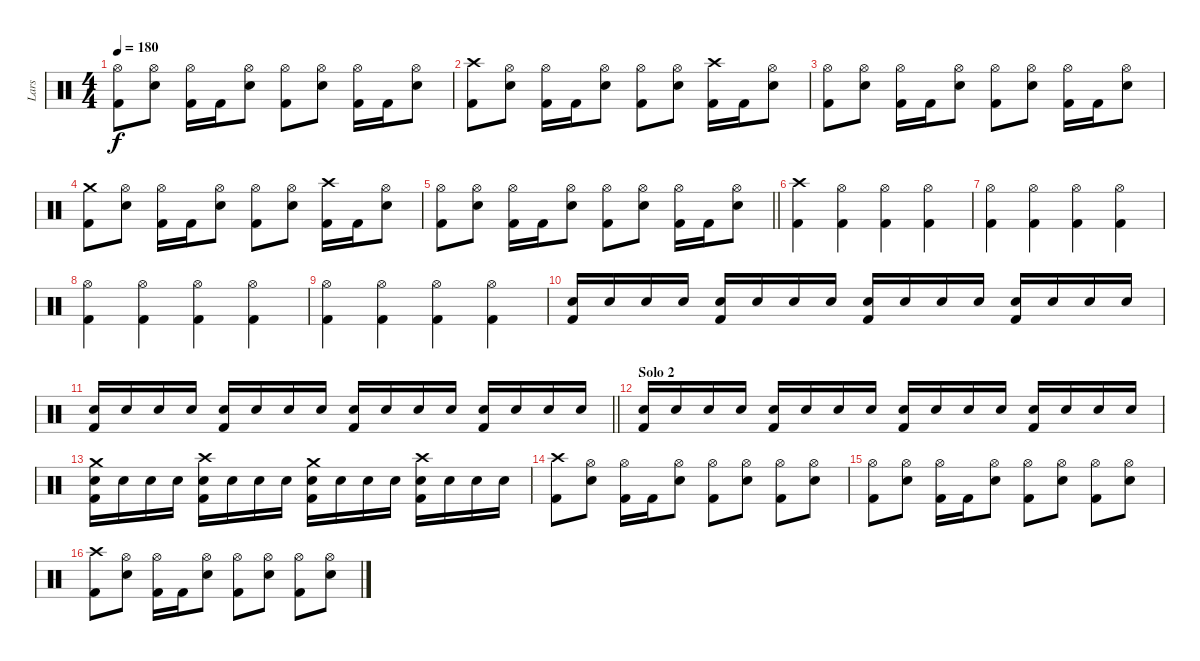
\track ("Lars" "Lars") {instrument percussion}
\staff {score}
\articulation defaults
\ts (4 4)
\tempo 180
\clef neutral
\ks c
("Hi-Hat (open)" "Kick (hit) 2").8{dy f} ("Hi-Hat (open)" "Electric Snare (hit)").8 ("Hi-Hat (open)" "Kick (hit) 2").16 "Kick (hit) 2".16 ("Hi-Hat (open)" "Electric Snare (hit)").8 ("Hi-Hat (open)" "Kick (hit) 2").8 ("Hi-Hat (open)" "Electric Snare (hit)").8 ("Hi-Hat (open)" "Kick (hit) 2").16 "Kick (hit) 2".16 ("Hi-Hat (open)" "Electric Snare (hit)").8 |
("Crash high (hit)" "Kick (hit) 2").8 ("Hi-Hat (open)" "Electric Snare (hit)").8 ("Hi-Hat (open)" "Kick (hit) 2").16 "Kick (hit) 2".16 ("Hi-Hat (open)" "Electric Snare (hit)").8 ("Hi-Hat (open)" "Kick (hit) 2").8 ("Hi-Hat (open)" "Electric Snare (hit)").8 ("Crash high (hit)" "Kick (hit) 2").16 "Kick (hit) 2".16 ("Hi-Hat (open)" "Electric Snare (hit)").8 |
("Hi-Hat (open)" "Kick (hit) 2").8 ("Hi-Hat (open)" "Electric Snare (hit)").8 ("Hi-Hat (open)" "Kick (hit) 2").16 "Kick (hit) 2".16 ("Hi-Hat (open)" "Electric Snare (hit)").8 ("Hi-Hat (open)" "Kick (hit) 2").8 ("Hi-Hat (open)" "Electric Snare (hit)").8 ("Hi-Hat (open)" "Kick (hit) 2").16 "Kick (hit) 2".16 ("Hi-Hat (open)" "Electric Snare (hit)").8 |
("Crash medium (hit)" "Kick (hit) 2").8 ("Hi-Hat (open)" "Electric Snare (hit)").8 ("Hi-Hat (open)" "Kick (hit) 2").16 "Kick (hit) 2".16 ("Hi-Hat (open)" "Electric Snare (hit)").8 ("Hi-Hat (open)" "Kick (hit) 2").8 ("Hi-Hat (open)" "Electric Snare (hit)").8 ("Crash high (hit)" "Kick (hit) 2").16 "Kick (hit) 2".16 ("Hi-Hat (open)" "Electric Snare (hit)").8 |
\barLineRight lightlight
("Hi-Hat (open)" "Kick (hit) 2").8 ("Hi-Hat (open)" "Electric Snare (hit)").8 ("Hi-Hat (open)" "Kick (hit) 2").16 "Kick (hit) 2".16 ("Hi-Hat (open)" "Electric Snare (hit)").8 ("Hi-Hat (open)" "Kick (hit) 2").8 ("Hi-Hat (open)" "Electric Snare (hit)").8 ("Hi-Hat (open)" "Kick (hit) 2").16 "Kick (hit) 2".16 ("Hi-Hat (open)" "Electric Snare (hit)").8 |
\section ("" "")
("Crash high (hit)" "Kick (hit) 2").4 ("Hi-Hat (open)" "Kick (hit) 2").4 ("Hi-Hat (open)" "Kick (hit) 2").4 ("Hi-Hat (open)" "Kick (hit) 2").4 |
("Hi-Hat (open)" "Kick (hit) 2").4 ("Hi-Hat (open)" "Kick (hit) 2").4 ("Hi-Hat (open)" "Kick (hit) 2").4 ("Hi-Hat (open)" "Kick (hit) 2").4 |
("Hi-Hat (open)" "Kick (hit) 2").4 ("Hi-Hat (open)" "Kick (hit) 2").4 ("Hi-Hat (open)" "Kick (hit) 2").4 ("Hi-Hat (open)" "Kick (hit) 2").4 |
("Hi-Hat (open)" "Kick (hit) 2").4 ("Hi-Hat (open)" "Kick (hit) 2").4 ("Hi-Hat (open)" "Kick (hit) 2").4 ("Hi-Hat (open)" "Kick (hit) 2").4 |
("Electric Snare (hit)" "Kick (hit) 2").16 "Electric Snare (hit)".16 "Electric Snare (hit)".16 "Electric Snare (hit)".16 ("Electric Snare (hit)" "Kick (hit) 2").16 "Electric Snare (hit)".16 "Electric Snare (hit)".16 "Electric Snare (hit)".16 ("Electric Snare (hit)" "Kick (hit) 2").16 "Electric Snare (hit)".16 "Electric Snare (hit)".16 "Electric Snare (hit)".16 ("Electric Snare (hit)" "Kick (hit) 2").16 "Electric Snare (hit)".16 "Electric Snare (hit)".16 "Electric Snare (hit)".16 |
\barLineRight lightlight
("Electric Snare (hit)" "Kick (hit) 2").16 "Electric Snare (hit)".16 "Electric Snare (hit)".16 "Electric Snare (hit)".16 ("Electric Snare (hit)" "Kick (hit) 2").16 "Electric Snare (hit)".16 "Electric Snare (hit)".16 "Electric Snare (hit)".16 ("Electric Snare (hit)" "Kick (hit) 2").16 "Electric Snare (hit)".16 "Electric Snare (hit)".16 "Electric Snare (hit)".16 ("Electric Snare (hit)" "Kick (hit) 2").16 "Electric Snare (hit)".16 "Electric Snare (hit)".16 "Electric Snare (hit)".16 |
\section ("" "Solo 2")
("Electric Snare (hit)" "Kick (hit) 2").16 "Electric Snare (hit)".16 "Electric Snare (hit)".16 "Electric Snare (hit)".16 ("Electric Snare (hit)" "Kick (hit) 2").16 "Electric Snare (hit)".16 "Electric Snare (hit)".16 "Electric Snare (hit)".16 ("Electric Snare (hit)" "Kick (hit) 2").16 "Electric Snare (hit)".16 "Electric Snare (hit)".16 "Electric Snare (hit)".16 ("Electric Snare (hit)" "Kick (hit) 2").16 "Electric Snare (hit)".16 "Electric Snare (hit)".16 "Electric Snare (hit)".16 |
("Crash medium (hit)" "Electric Snare (hit)" "Kick (hit) 2").16 "Electric Snare (hit)".16 "Electric Snare (hit)".16 "Electric Snare (hit)".16 ("Crash high (hit)" "Electric Snare (hit)" "Kick (hit) 2").16 "Electric Snare (hit)".16 "Electric Snare (hit)".16 "Electric Snare (hit)".16 ("Crash medium (hit)" "Electric Snare (hit)" "Kick (hit) 2").16 "Electric Snare (hit)".16 "Electric Snare (hit)".16 "Electric Snare (hit)".16 ("Crash high (hit)" "Electric Snare (hit)" "Kick (hit) 2").16 "Electric Snare (hit)".16 "Electric Snare (hit)".16 "Electric Snare (hit)".16 |
("Crash high (hit)" "Kick (hit) 2").8 ("Hi-Hat (open)" "Electric Snare (hit)").8 ("Hi-Hat (open)" "Kick (hit) 2").16 "Kick (hit) 2".16 ("Hi-Hat (open)" "Electric Snare (hit)").8 ("Hi-Hat (open)" "Kick (hit) 2").8 ("Hi-Hat (open)" "Electric Snare (hit)").8 ("Hi-Hat (open)" "Kick (hit) 2").8 ("Hi-Hat (open)" "Electric Snare (hit)").8 |
("Hi-Hat (open)" "Kick (hit) 2").8 ("Hi-Hat (open)" "Electric Snare (hit)").8 ("Hi-Hat (open)" "Kick (hit) 2").16 "Kick (hit) 2".16 ("Hi-Hat (open)" "Electric Snare (hit)").8 ("Hi-Hat (open)" "Kick (hit) 2").8 ("Hi-Hat (open)" "Electric Snare (hit)").8 ("Hi-Hat (open)" "Kick (hit) 2").8 ("Hi-Hat (open)" "Electric Snare (hit)").8 |
("Crash high (hit)" "Kick (hit) 2").8 ("Hi-Hat (open)" "Electric Snare (hit)").8 ("Hi-Hat (open)" "Kick (hit) 2").16 "Kick (hit) 2".16 ("Hi-Hat (open)" "Electric Snare (hit)").8 ("Hi-Hat (open)" "Kick (hit) 2").8 ("Hi-Hat (open)" "Electric Snare (hit)").8 ("Hi-Hat (open)" "Kick (hit) 2").8 ("Hi-Hat (open)" "Electric Snare (hit)").8
